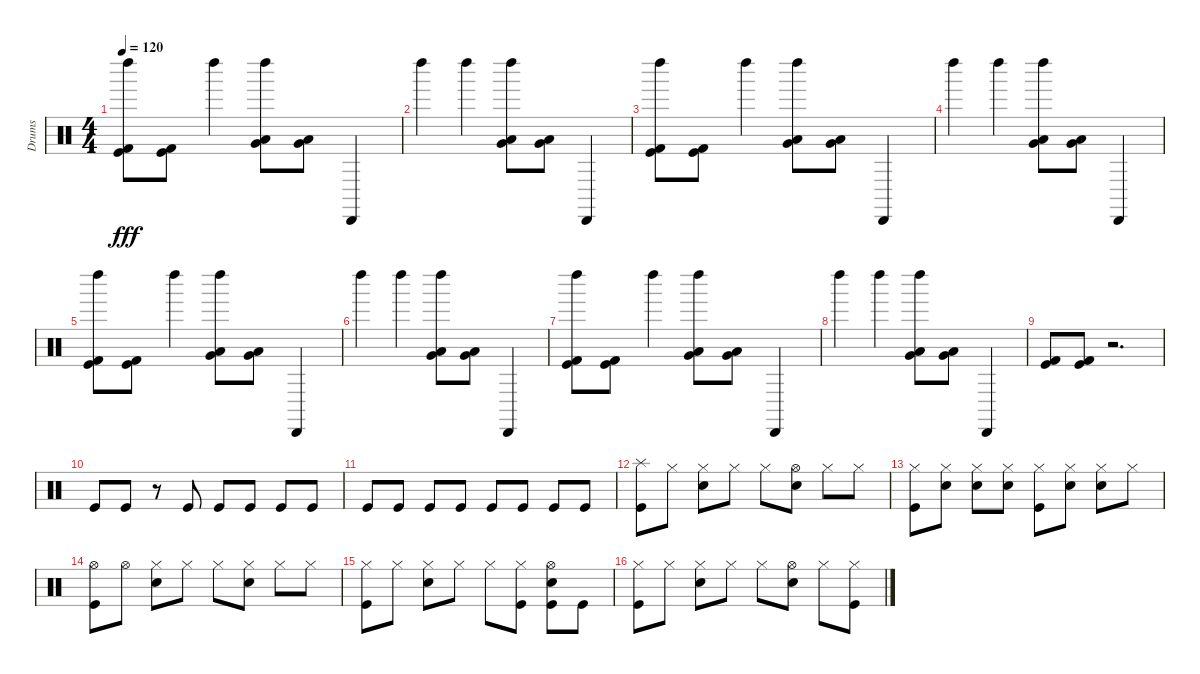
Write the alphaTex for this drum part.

\track ("Drums" "Drums") {instrument percussion}
\staff {score}
\articulation defaults
\ts (4 4)
\tempo 120
\clef neutral
\ks c
("Left Maraca (hit)" "Kick (hit) 2" "Kick (hit)").8{dy fff} ("Kick (hit) 2" "Kick (hit)").8 "Left Maraca (hit)".4 ("Left Maraca (hit)" "Very Low Tom (hit)" "Low Tom (hit)").8 ("Very Low Tom (hit)" "Low Tom (hit)").8 "Cabasa (hit)".4 |
"Left Maraca (hit)".4 "Left Maraca (hit)".4 ("Left Maraca (hit)" "Very Low Tom (hit)" "Low Tom (hit)").8 ("Very Low Tom (hit)" "Low Tom (hit)").8 "Cabasa (hit)".4 |
("Left Maraca (hit)" "Kick (hit) 2" "Kick (hit)").8 ("Kick (hit) 2" "Kick (hit)").8 "Left Maraca (hit)".4 ("Left Maraca (hit)" "Very Low Tom (hit)" "Low Tom (hit)").8 ("Very Low Tom (hit)" "Low Tom (hit)").8 "Cabasa (hit)".4 |
"Left Maraca (hit)".4 "Left Maraca (hit)".4 ("Left Maraca (hit)" "Very Low Tom (hit)" "Low Tom (hit)").8 ("Very Low Tom (hit)" "Low Tom (hit)").8 "Cabasa (hit)".4 |
("Left Maraca (hit)" "Kick (hit) 2" "Kick (hit)").8 ("Kick (hit) 2" "Kick (hit)").8 "Left Maraca (hit)".4 ("Left Maraca (hit)" "Very Low Tom (hit)" "Low Tom (hit)").8 ("Very Low Tom (hit)" "Low Tom (hit)").8 "Cabasa (hit)".4 |
"Left Maraca (hit)".4 "Left Maraca (hit)".4 ("Left Maraca (hit)" "Very Low Tom (hit)" "Low Tom (hit)").8 ("Very Low Tom (hit)" "Low Tom (hit)").8 "Cabasa (hit)".4 |
("Left Maraca (hit)" "Kick (hit) 2" "Kick (hit)").8 ("Kick (hit) 2" "Kick (hit)").8 "Left Maraca (hit)".4 ("Left Maraca (hit)" "Very Low Tom (hit)" "Low Tom (hit)").8 ("Very Low Tom (hit)" "Low Tom (hit)").8 "Cabasa (hit)".4 |
"Left Maraca (hit)".4 "Left Maraca (hit)".4 ("Left Maraca (hit)" "Very Low Tom (hit)" "Low Tom (hit)").8 ("Very Low Tom (hit)" "Low Tom (hit)").8 "Cabasa (hit)".4 |
("Kick (hit) 2" "Kick (hit)").8 ("Kick (hit) 2" "Kick (hit)").8 r.2{d} |
"Kick (hit)".8 "Kick (hit)".8 r.8 "Kick (hit)".8 "Kick (hit)".8 "Kick (hit)".8 "Kick (hit)".8 "Kick (hit)".8 |
"Kick (hit)".8 "Kick (hit)".8 "Kick (hit)".8 "Kick (hit)".8 "Kick (hit)".8 "Kick (hit)".8 "Kick (hit)".8 "Kick (hit)".8 |
("Splash (hit)" "Kick (hit)").8 "Hi-Hat (closed)".8 ("Hi-Hat (closed)" "Snare (hit) 2").8 "Hi-Hat (closed)".8 "Hi-Hat (closed)".8 ("Hi-Hat (open)" "Snare (hit) 2").8 "Hi-Hat (closed)".8 "Hi-Hat (closed)".8 |
("Hi-Hat (closed)" "Kick (hit)").8 ("Hi-Hat (closed)" "Snare (hit) 2").8 ("Hi-Hat (closed)" "Snare (hit) 2").8 ("Hi-Hat (closed)" "Snare (hit) 2").8 ("Hi-Hat (closed)" "Kick (hit)").8 ("Hi-Hat (closed)" "Snare (hit) 2").8 ("Hi-Hat (closed)" "Snare (hit) 2").8 "Hi-Hat (closed)".8 |
("Hi-Hat (open)" "Kick (hit)").8 "Hi-Hat (open)".8 ("Hi-Hat (closed)" "Snare (hit) 2").8 "Hi-Hat (closed)".8 "Hi-Hat (closed)".8 ("Hi-Hat (closed)" "Snare (hit) 2").8 "Hi-Hat (closed)".8 "Hi-Hat (closed)".8 |
("Hi-Hat (closed)" "Kick (hit)").8 "Hi-Hat (closed)".8 ("Hi-Hat (closed)" "Snare (hit) 2").8 "Hi-Hat (closed)".8 "Hi-Hat (closed)".8 ("Hi-Hat (closed)" "Kick (hit)").8 ("Hi-Hat (open)" "Snare (hit) 2" "Kick (hit)").8 "Kick (hit)".8 |
("Hi-Hat (closed)" "Kick (hit)").8 "Hi-Hat (closed)".8 ("Hi-Hat (closed)" "Snare (hit) 2").8 "Hi-Hat (closed)".8 "Hi-Hat (closed)".8 ("Hi-Hat (open)" "Snare (hit) 2").8 "Hi-Hat (closed)".8 ("Hi-Hat (closed)" "Kick (hit)").8
